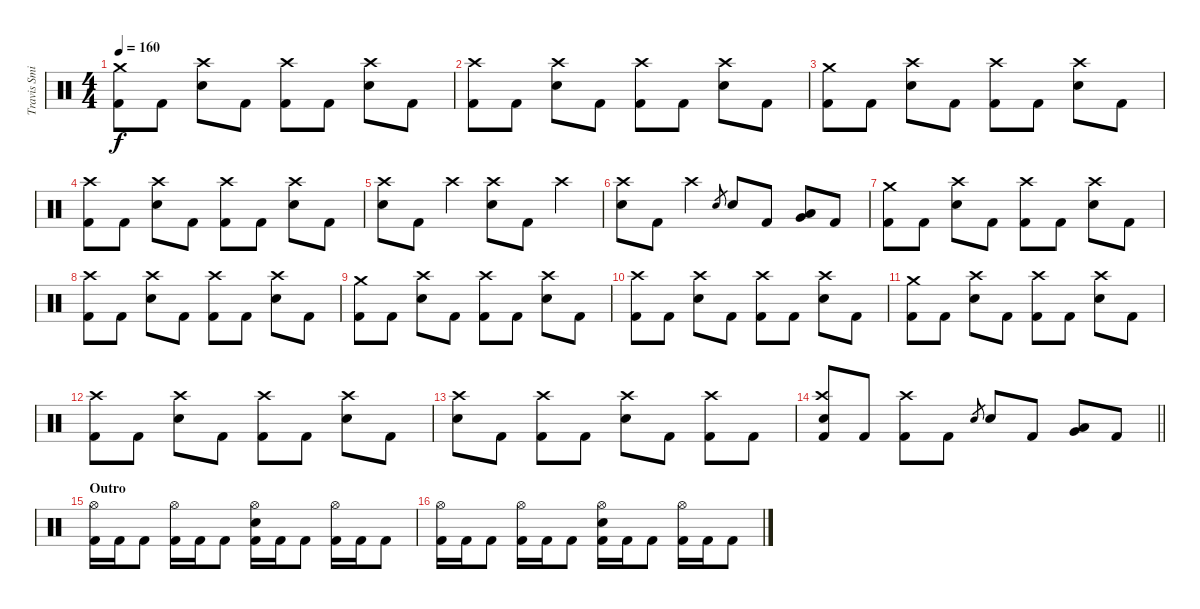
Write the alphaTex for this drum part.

\track ("Travis Smith" "Travis Smi") {instrument percussion}
\staff {score}
\articulation defaults
\ts (4 4)
\tempo 160
\clef neutral
\ks c
("Crash medium (hit)" "Kick (hit) 2").8{dy f} "Kick (hit) 2".8 ("Crash high (hit)" "Electric Snare (hit)").8 "Kick (hit) 2".8 ("Crash high (hit)" "Kick (hit) 2").8 "Kick (hit) 2".8 ("Crash high (hit)" "Electric Snare (hit)").8 "Kick (hit) 2".8 |
("Crash high (hit)" "Kick (hit) 2").8 "Kick (hit) 2".8 ("Crash high (hit)" "Electric Snare (hit)").8 "Kick (hit) 2".8 ("Crash high (hit)" "Kick (hit) 2").8 "Kick (hit) 2".8 ("Crash high (hit)" "Electric Snare (hit)").8 "Kick (hit) 2".8 |
("Crash medium (hit)" "Kick (hit) 2").8 "Kick (hit) 2".8 ("Crash high (hit)" "Electric Snare (hit)").8 "Kick (hit) 2".8 ("Crash high (hit)" "Kick (hit) 2").8 "Kick (hit) 2".8 ("Crash high (hit)" "Electric Snare (hit)").8 "Kick (hit) 2".8 |
("Crash high (hit)" "Kick (hit) 2").8 "Kick (hit) 2".8 ("Crash high (hit)" "Electric Snare (hit)").8 "Kick (hit) 2".8 ("Crash high (hit)" "Kick (hit) 2").8 "Kick (hit) 2".8 ("Crash high (hit)" "Electric Snare (hit)").8 "Kick (hit) 2".8 |
("Crash high (hit)" "Electric Snare (hit)").8 "Kick (hit) 2".8 "Crash high (hit)".4 ("Crash high (hit)" "Electric Snare (hit)").8 "Kick (hit) 2".8 "Crash high (hit)".4 |
("Crash high (hit)" "Electric Snare (hit)").8 "Kick (hit) 2".8 "Crash high (hit)".4 "Electric Snare (hit)".8{gr} "Electric Snare (hit)".8 "Kick (hit) 2".8 ("Low Floor Tom (hit)" "Very Low Tom (hit)").8 "Kick (hit) 2".8 |
("Crash medium (hit)" "Kick (hit) 2").8 "Kick (hit) 2".8 ("Crash high (hit)" "Electric Snare (hit)").8 "Kick (hit) 2".8 ("Crash high (hit)" "Kick (hit) 2").8 "Kick (hit) 2".8 ("Crash high (hit)" "Electric Snare (hit)").8 "Kick (hit) 2".8 |
("Crash high (hit)" "Kick (hit) 2").8 "Kick (hit) 2".8 ("Crash high (hit)" "Electric Snare (hit)").8 "Kick (hit) 2".8 ("Crash high (hit)" "Kick (hit) 2").8 "Kick (hit) 2".8 ("Crash high (hit)" "Electric Snare (hit)").8 "Kick (hit) 2".8 |
("Crash medium (hit)" "Kick (hit) 2").8 "Kick (hit) 2".8 ("Crash high (hit)" "Electric Snare (hit)").8 "Kick (hit) 2".8 ("Crash high (hit)" "Kick (hit) 2").8 "Kick (hit) 2".8 ("Crash high (hit)" "Electric Snare (hit)").8 "Kick (hit) 2".8 |
("Crash high (hit)" "Kick (hit) 2").8 "Kick (hit) 2".8 ("Crash high (hit)" "Electric Snare (hit)").8 "Kick (hit) 2".8 ("Crash high (hit)" "Kick (hit) 2").8 "Kick (hit) 2".8 ("Crash high (hit)" "Electric Snare (hit)").8 "Kick (hit) 2".8 |
("Crash medium (hit)" "Kick (hit) 2").8 "Kick (hit) 2".8 ("Crash high (hit)" "Electric Snare (hit)").8 "Kick (hit) 2".8 ("Crash high (hit)" "Kick (hit) 2").8 "Kick (hit) 2".8 ("Crash high (hit)" "Electric Snare (hit)").8 "Kick (hit) 2".8 |
("Crash high (hit)" "Kick (hit) 2").8 "Kick (hit) 2".8 ("Crash high (hit)" "Electric Snare (hit)").8 "Kick (hit) 2".8 ("Crash high (hit)" "Kick (hit) 2").8 "Kick (hit) 2".8 ("Crash high (hit)" "Electric Snare (hit)").8 "Kick (hit) 2".8 |
("Crash high (hit)" "Electric Snare (hit)").8 "Kick (hit) 2".8 ("Crash high (hit)" "Kick (hit) 2").8 "Kick (hit) 2".8 ("Crash high (hit)" "Electric Snare (hit)").8 "Kick (hit) 2".8 ("Crash high (hit)" "Kick (hit) 2").8 "Kick (hit) 2".8 |
\barLineRight lightlight
("Crash high (hit)" "Electric Snare (hit)" "Kick (hit) 2").8 "Kick (hit) 2".8 ("Crash high (hit)" "Kick (hit) 2").8 "Kick (hit) 2".8 "Electric Snare (hit)".8{gr} "Electric Snare (hit)".8 "Kick (hit) 2".8 ("Low Floor Tom (hit)" "Very Low Tom (hit)").8 "Kick (hit) 2".8 |
\section ("" "Outro")
("Hi-Hat (open)" "Kick (hit) 2").16 "Kick (hit) 2".16 "Kick (hit) 2".8 ("Hi-Hat (open)" "Kick (hit) 2").16 "Kick (hit) 2".16 "Kick (hit) 2".8 ("Hi-Hat (open)" "Electric Snare (hit)" "Kick (hit) 2").16 "Kick (hit) 2".16 "Kick (hit) 2".8 ("Hi-Hat (open)" "Kick (hit) 2").16 "Kick (hit) 2".16 "Kick (hit) 2".8 |
("Hi-Hat (open)" "Kick (hit) 2").16 "Kick (hit) 2".16 "Kick (hit) 2".8 ("Hi-Hat (open)" "Kick (hit) 2").16 "Kick (hit) 2".16 "Kick (hit) 2".8 ("Hi-Hat (open)" "Electric Snare (hit)" "Kick (hit) 2").16 "Kick (hit) 2".16 "Kick (hit) 2".8 ("Hi-Hat (open)" "Kick (hit) 2").16 "Kick (hit) 2".16 "Kick (hit) 2".8
